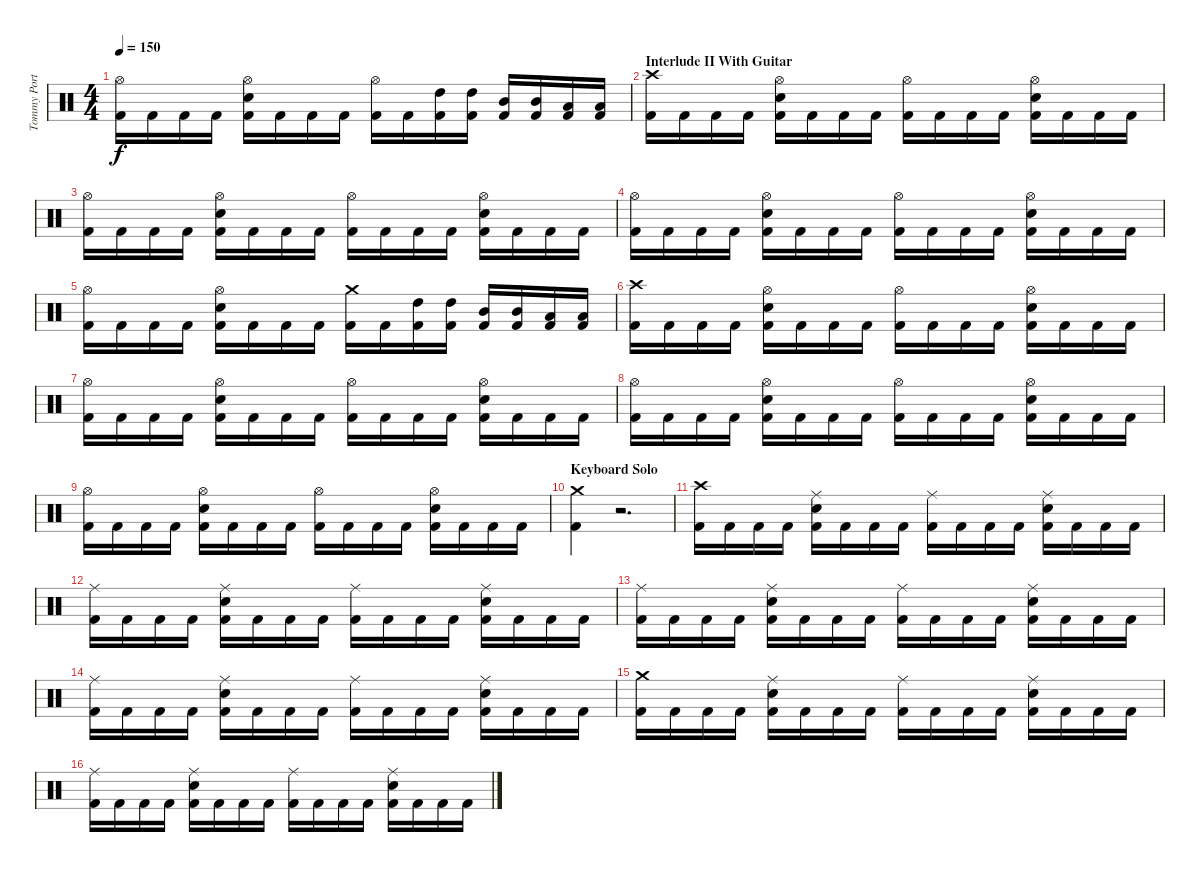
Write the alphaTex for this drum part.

\track ("Tommy Portino - Drums" "Tommy Port") {instrument percussion}
\staff {score}
\articulation defaults
\ts (4 4)
\tempo 150
\clef neutral
\ks c
("Hi-Hat (open)" "Kick (hit) 2").16{dy f} "Kick (hit) 2".16 "Kick (hit) 2".16 "Kick (hit) 2".16 ("Hi-Hat (open)" "Electric Snare (hit)" "Kick (hit) 2").16 "Kick (hit) 2".16 "Kick (hit) 2".16 "Kick (hit) 2".16 ("Hi-Hat (open)" "Kick (hit) 2").16 "Kick (hit) 2".16 ("High Tom (hit)" "Kick (hit) 2").16 ("High Tom (hit)" "Kick (hit) 2").16 ("Mid Tom (hit)" "Kick (hit) 2").16 ("Mid Tom (hit)" "Kick (hit) 2").16 ("Low Tom (hit)" "Kick (hit) 2").16 ("Low Tom (hit)" "Kick (hit) 2").16 |
\section ("" "Interlude II With Guitar")
("Crash high (hit)" "Kick (hit) 2").16 "Kick (hit) 2".16 "Kick (hit) 2".16 "Kick (hit) 2".16 ("Hi-Hat (open)" "Electric Snare (hit)" "Kick (hit) 2").16 "Kick (hit) 2".16 "Kick (hit) 2".16 "Kick (hit) 2".16 ("Hi-Hat (open)" "Kick (hit) 2").16 "Kick (hit) 2".16 "Kick (hit) 2".16 "Kick (hit) 2".16 ("Hi-Hat (open)" "Electric Snare (hit)" "Kick (hit) 2").16 "Kick (hit) 2".16 "Kick (hit) 2".16 "Kick (hit) 2".16 |
("Hi-Hat (open)" "Kick (hit) 2").16 "Kick (hit) 2".16 "Kick (hit) 2".16 "Kick (hit) 2".16 ("Hi-Hat (open)" "Electric Snare (hit)" "Kick (hit) 2").16 "Kick (hit) 2".16 "Kick (hit) 2".16 "Kick (hit) 2".16 ("Hi-Hat (open)" "Kick (hit) 2").16 "Kick (hit) 2".16 "Kick (hit) 2".16 "Kick (hit) 2".16 ("Hi-Hat (open)" "Electric Snare (hit)" "Kick (hit) 2").16 "Kick (hit) 2".16 "Kick (hit) 2".16 "Kick (hit) 2".16 |
("Hi-Hat (open)" "Kick (hit) 2").16 "Kick (hit) 2".16 "Kick (hit) 2".16 "Kick (hit) 2".16 ("Hi-Hat (open)" "Electric Snare (hit)" "Kick (hit) 2").16 "Kick (hit) 2".16 "Kick (hit) 2".16 "Kick (hit) 2".16 ("Hi-Hat (open)" "Kick (hit) 2").16 "Kick (hit) 2".16 "Kick (hit) 2".16 "Kick (hit) 2".16 ("Hi-Hat (open)" "Electric Snare (hit)" "Kick (hit) 2").16 "Kick (hit) 2".16 "Kick (hit) 2".16 "Kick (hit) 2".16 |
("Hi-Hat (open)" "Kick (hit) 2").16 "Kick (hit) 2".16 "Kick (hit) 2".16 "Kick (hit) 2".16 ("Hi-Hat (open)" "Electric Snare (hit)" "Kick (hit) 2").16 "Kick (hit) 2".16 "Kick (hit) 2".16 "Kick (hit) 2".16 ("Crash medium (hit)" "Kick (hit) 2").16 "Kick (hit) 2".16 ("High Tom (hit)" "Kick (hit) 2").16 ("High Tom (hit)" "Kick (hit) 2").16 ("Mid Tom (hit)" "Kick (hit) 2").16 ("Mid Tom (hit)" "Kick (hit) 2").16 ("Low Tom (hit)" "Kick (hit) 2").16 ("Low Tom (hit)" "Kick (hit) 2").16 |
("Crash high (hit)" "Kick (hit) 2").16 "Kick (hit) 2".16 "Kick (hit) 2".16 "Kick (hit) 2".16 ("Hi-Hat (open)" "Electric Snare (hit)" "Kick (hit) 2").16 "Kick (hit) 2".16 "Kick (hit) 2".16 "Kick (hit) 2".16 ("Hi-Hat (open)" "Kick (hit) 2").16 "Kick (hit) 2".16 "Kick (hit) 2".16 "Kick (hit) 2".16 ("Hi-Hat (open)" "Electric Snare (hit)" "Kick (hit) 2").16 "Kick (hit) 2".16 "Kick (hit) 2".16 "Kick (hit) 2".16 |
("Hi-Hat (open)" "Kick (hit) 2").16 "Kick (hit) 2".16 "Kick (hit) 2".16 "Kick (hit) 2".16 ("Hi-Hat (open)" "Electric Snare (hit)" "Kick (hit) 2").16 "Kick (hit) 2".16 "Kick (hit) 2".16 "Kick (hit) 2".16 ("Hi-Hat (open)" "Kick (hit) 2").16 "Kick (hit) 2".16 "Kick (hit) 2".16 "Kick (hit) 2".16 ("Hi-Hat (open)" "Electric Snare (hit)" "Kick (hit) 2").16 "Kick (hit) 2".16 "Kick (hit) 2".16 "Kick (hit) 2".16 |
("Hi-Hat (open)" "Kick (hit) 2").16 "Kick (hit) 2".16 "Kick (hit) 2".16 "Kick (hit) 2".16 ("Hi-Hat (open)" "Electric Snare (hit)" "Kick (hit) 2").16 "Kick (hit) 2".16 "Kick (hit) 2".16 "Kick (hit) 2".16 ("Hi-Hat (open)" "Kick (hit) 2").16 "Kick (hit) 2".16 "Kick (hit) 2".16 "Kick (hit) 2".16 ("Hi-Hat (open)" "Electric Snare (hit)" "Kick (hit) 2").16 "Kick (hit) 2".16 "Kick (hit) 2".16 "Kick (hit) 2".16 |
("Hi-Hat (open)" "Kick (hit) 2").16 "Kick (hit) 2".16 "Kick (hit) 2".16 "Kick (hit) 2".16 ("Hi-Hat (open)" "Electric Snare (hit)" "Kick (hit) 2").16 "Kick (hit) 2".16 "Kick (hit) 2".16 "Kick (hit) 2".16 ("Hi-Hat (open)" "Kick (hit) 2").16 "Kick (hit) 2".16 "Kick (hit) 2".16 "Kick (hit) 2".16 ("Hi-Hat (open)" "Electric Snare (hit)" "Kick (hit) 2").16 "Kick (hit) 2".16 "Kick (hit) 2".16 "Kick (hit) 2".16 |
\section ("" "Keyboard Solo")
("Crash medium (hit)" "Kick (hit) 2").4 r.2{d} |
("Crash high (hit)" "Kick (hit) 2").16 "Kick (hit) 2".16 "Kick (hit) 2".16 "Kick (hit) 2".16 ("Ride (middle)" "Electric Snare (hit)" "Kick (hit) 2").16 "Kick (hit) 2".16 "Kick (hit) 2".16 "Kick (hit) 2".16 ("Ride (middle)" "Kick (hit) 2").16 "Kick (hit) 2".16 "Kick (hit) 2".16 "Kick (hit) 2".16 ("Ride (middle)" "Electric Snare (hit)" "Kick (hit) 2").16 "Kick (hit) 2".16 "Kick (hit) 2".16 "Kick (hit) 2".16 |
("Ride (middle)" "Kick (hit) 2").16 "Kick (hit) 2".16 "Kick (hit) 2".16 "Kick (hit) 2".16 ("Ride (middle)" "Electric Snare (hit)" "Kick (hit) 2").16 "Kick (hit) 2".16 "Kick (hit) 2".16 "Kick (hit) 2".16 ("Ride (middle)" "Kick (hit) 2").16 "Kick (hit) 2".16 "Kick (hit) 2".16 "Kick (hit) 2".16 ("Ride (middle)" "Electric Snare (hit)" "Kick (hit) 2").16 "Kick (hit) 2".16 "Kick (hit) 2".16 "Kick (hit) 2".16 |
("Ride (middle)" "Kick (hit) 2").16 "Kick (hit) 2".16 "Kick (hit) 2".16 "Kick (hit) 2".16 ("Ride (middle)" "Electric Snare (hit)" "Kick (hit) 2").16 "Kick (hit) 2".16 "Kick (hit) 2".16 "Kick (hit) 2".16 ("Ride (middle)" "Kick (hit) 2").16 "Kick (hit) 2".16 "Kick (hit) 2".16 "Kick (hit) 2".16 ("Ride (middle)" "Electric Snare (hit)" "Kick (hit) 2").16 "Kick (hit) 2".16 "Kick (hit) 2".16 "Kick (hit) 2".16 |
("Ride (middle)" "Kick (hit) 2").16 "Kick (hit) 2".16 "Kick (hit) 2".16 "Kick (hit) 2".16 ("Ride (middle)" "Electric Snare (hit)" "Kick (hit) 2").16 "Kick (hit) 2".16 "Kick (hit) 2".16 "Kick (hit) 2".16 ("Ride (middle)" "Kick (hit) 2").16 "Kick (hit) 2".16 "Kick (hit) 2".16 "Kick (hit) 2".16 ("Ride (middle)" "Electric Snare (hit)" "Kick (hit) 2").16 "Kick (hit) 2".16 "Kick (hit) 2".16 "Kick (hit) 2".16 |
("Crash medium (hit)" "Kick (hit) 2").16 "Kick (hit) 2".16 "Kick (hit) 2".16 "Kick (hit) 2".16 ("Ride (middle)" "Electric Snare (hit)" "Kick (hit) 2").16 "Kick (hit) 2".16 "Kick (hit) 2".16 "Kick (hit) 2".16 ("Ride (middle)" "Kick (hit) 2").16 "Kick (hit) 2".16 "Kick (hit) 2".16 "Kick (hit) 2".16 ("Ride (middle)" "Electric Snare (hit)" "Kick (hit) 2").16 "Kick (hit) 2".16 "Kick (hit) 2".16 "Kick (hit) 2".16 |
("Ride (middle)" "Kick (hit) 2").16 "Kick (hit) 2".16 "Kick (hit) 2".16 "Kick (hit) 2".16 ("Ride (middle)" "Electric Snare (hit)" "Kick (hit) 2").16 "Kick (hit) 2".16 "Kick (hit) 2".16 "Kick (hit) 2".16 ("Ride (middle)" "Kick (hit) 2").16 "Kick (hit) 2".16 "Kick (hit) 2".16 "Kick (hit) 2".16 ("Ride (middle)" "Electric Snare (hit)" "Kick (hit) 2").16 "Kick (hit) 2".16 "Kick (hit) 2".16 "Kick (hit) 2".16
